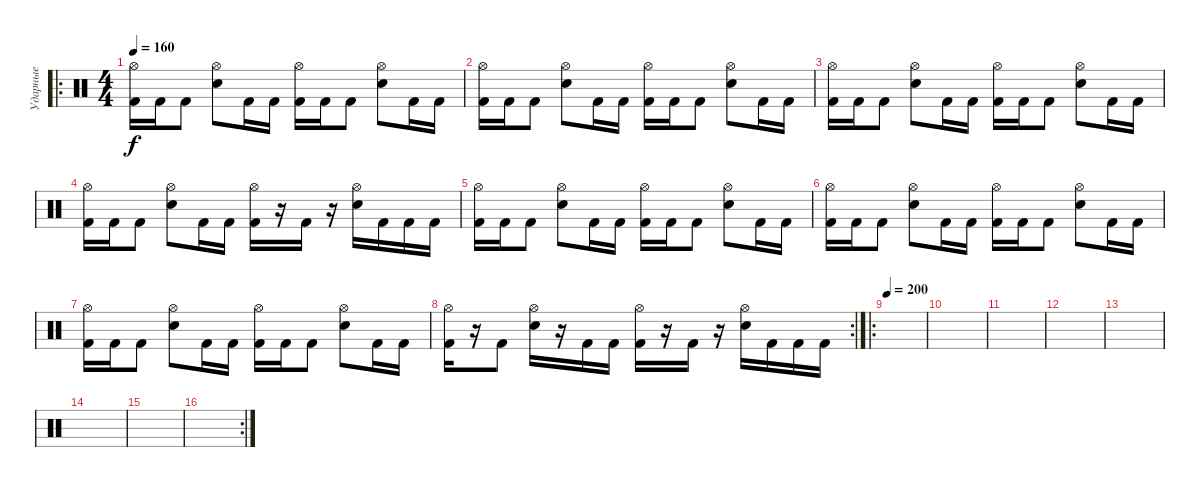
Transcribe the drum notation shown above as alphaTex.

\track ("Ударные" "Ударные") {instrument percussion}
\staff {score}
\articulation defaults
\ro
\ts (4 4)
\tempo 160
\clef neutral
\ks c
("Hi-Hat (open)" "Kick (hit) 2").16{dy f} "Kick (hit) 2".16 "Kick (hit) 2".8 ("Hi-Hat (open)" "Electric Snare (hit)").8 "Kick (hit) 2".16 "Kick (hit) 2".16 ("Hi-Hat (open)" "Kick (hit) 2").16 "Kick (hit) 2".16 "Kick (hit) 2".8 ("Hi-Hat (open)" "Electric Snare (hit)").8 "Kick (hit) 2".16 "Kick (hit) 2".16 |
("Hi-Hat (open)" "Kick (hit) 2").16 "Kick (hit) 2".16 "Kick (hit) 2".8 ("Hi-Hat (open)" "Electric Snare (hit)").8 "Kick (hit) 2".16 "Kick (hit) 2".16 ("Hi-Hat (open)" "Kick (hit) 2").16 "Kick (hit) 2".16 "Kick (hit) 2".8 ("Hi-Hat (open)" "Electric Snare (hit)").8 "Kick (hit) 2".16 "Kick (hit) 2".16 |
("Hi-Hat (open)" "Kick (hit) 2").16 "Kick (hit) 2".16 "Kick (hit) 2".8 ("Hi-Hat (open)" "Electric Snare (hit)").8 "Kick (hit) 2".16 "Kick (hit) 2".16 ("Hi-Hat (open)" "Kick (hit) 2").16 "Kick (hit) 2".16 "Kick (hit) 2".8 ("Hi-Hat (open)" "Electric Snare (hit)").8 "Kick (hit) 2".16 "Kick (hit) 2".16 |
("Hi-Hat (open)" "Kick (hit) 2").16 "Kick (hit) 2".16 "Kick (hit) 2".8 ("Hi-Hat (open)" "Electric Snare (hit)").8 "Kick (hit) 2".16 "Kick (hit) 2".16 ("Hi-Hat (open)" "Kick (hit) 2").16 r.16 "Kick (hit) 2".16 r.16 ("Hi-Hat (open)" "Electric Snare (hit)").16 "Kick (hit) 2".16 "Kick (hit) 2".16 "Kick (hit) 2".16 |
("Hi-Hat (open)" "Kick (hit) 2").16 "Kick (hit) 2".16 "Kick (hit) 2".8 ("Hi-Hat (open)" "Electric Snare (hit)").8 "Kick (hit) 2".16 "Kick (hit) 2".16 ("Hi-Hat (open)" "Kick (hit) 2").16 "Kick (hit) 2".16 "Kick (hit) 2".8 ("Hi-Hat (open)" "Electric Snare (hit)").8 "Kick (hit) 2".16 "Kick (hit) 2".16 |
("Hi-Hat (open)" "Kick (hit) 2").16 "Kick (hit) 2".16 "Kick (hit) 2".8 ("Hi-Hat (open)" "Electric Snare (hit)").8 "Kick (hit) 2".16 "Kick (hit) 2".16 ("Hi-Hat (open)" "Kick (hit) 2").16 "Kick (hit) 2".16 "Kick (hit) 2".8 ("Hi-Hat (open)" "Electric Snare (hit)").8 "Kick (hit) 2".16 "Kick (hit) 2".16 |
("Hi-Hat (open)" "Kick (hit) 2").16 "Kick (hit) 2".16 "Kick (hit) 2".8 ("Hi-Hat (open)" "Electric Snare (hit)").8 "Kick (hit) 2".16 "Kick (hit) 2".16 ("Hi-Hat (open)" "Kick (hit) 2").16 "Kick (hit) 2".16 "Kick (hit) 2".8 ("Hi-Hat (open)" "Electric Snare (hit)").8 "Kick (hit) 2".16 "Kick (hit) 2".16 |
\rc 2
("Hi-Hat (open)" "Kick (hit) 2").16 r.16 "Kick (hit) 2".8 ("Hi-Hat (open)" "Electric Snare (hit)").16 r.16 "Kick (hit) 2".16 "Kick (hit) 2".16 ("Hi-Hat (open)" "Kick (hit) 2").16 r.16 "Kick (hit) 2".16 r.16 ("Hi-Hat (open)" "Electric Snare (hit)").16 "Kick (hit) 2".16 "Kick (hit) 2".16 "Kick (hit) 2".16 |
\ro
\tempo 200
|
|
|
|
|
|
|
\rc 2
